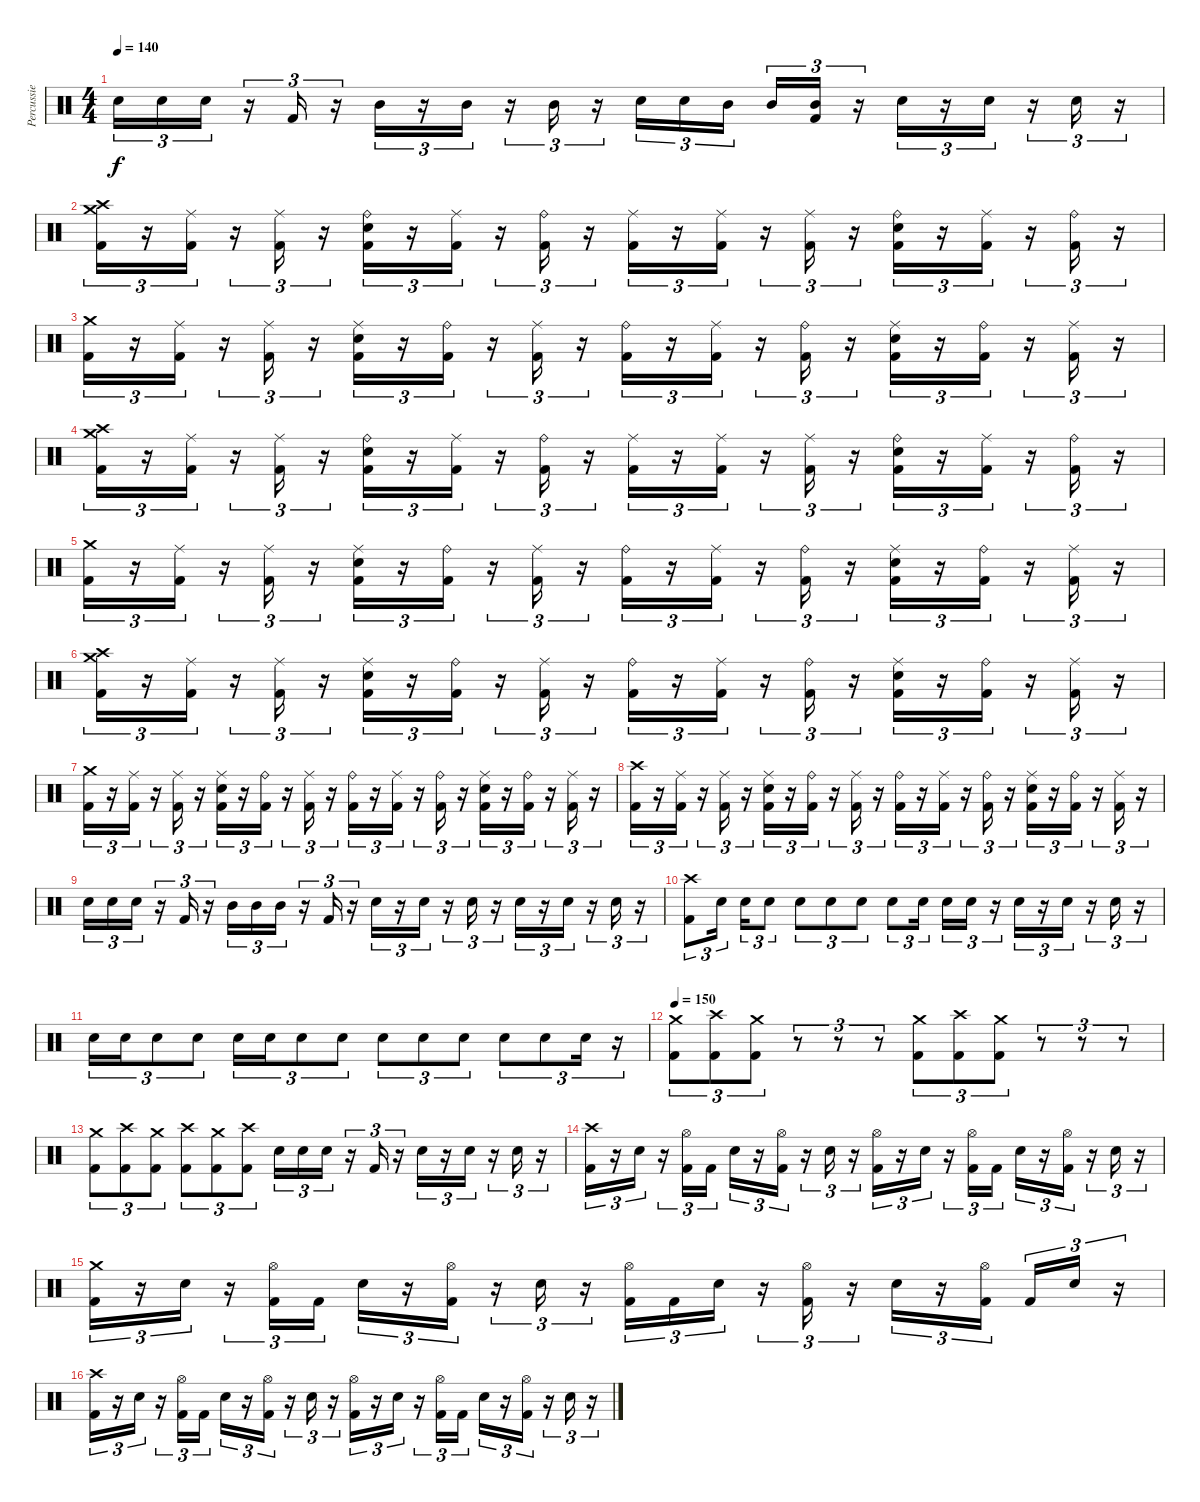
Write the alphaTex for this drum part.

\track ("Percussie" "Percussie") {instrument percussion}
\staff {score}
\articulation defaults
\ts (4 4)
\tempo 140
\clef neutral
\ks c "Electric Snare (hit)".16{tu (3 2) dy f} "Electric Snare (hit)".16{tu (3 2)} "Electric Snare (hit)".16{tu (3 2)}
r.16{tu (3 2)} "Kick (hit) 2".16{tu (3 2)} r.16{tu (3 2)} "Mid Tom (hit)".16{tu (3 2)} r.16{tu (3 2)} "Mid Tom (hit)".16{tu (3 2)} r.16{tu (3 2)} "Mid Tom (hit)".16{tu (3 2)} r.16{tu (3 2)} "Electric Snare (hit)".16{tu (3 2)} "Electric Snare (hit)".16{tu (3 2)} "Mid Tom (hit)".16{tu (3 2) beam splitsecondary} "Mid Tom (hit)".16{tu (3 2)} ("Mid Tom (hit)" "Kick (hit) 2").16{tu (3 2)} r.16{tu (3 2)} "Electric Snare (hit)".16{tu (3 2)} r.16{tu (3 2)} "Electric Snare (hit)".16{tu (3 2)} r.16{tu (3 2)} "Electric Snare (hit)".16{tu (3 2)} r.16{tu (3 2)} |
("Crash medium (hit)" "Crash high (hit)" "Kick (hit) 2").16{tu (3 2)} r.16{tu (3 2)} ("Ride (middle)" "Kick (hit) 2").16{tu (3 2)} r.16{tu (3 2)} ("Ride (middle)" "Kick (hit) 2").16{tu (3 2)} r.16{tu (3 2)} ("Ride (bell)" "Electric Snare (hit)" "Kick (hit) 2").16{tu (3 2)} r.16{tu (3 2)} ("Ride (middle)" "Kick (hit) 2").16{tu (3 2)} r.16{tu (3 2)} ("Ride (bell)" "Kick (hit) 2").16{tu (3 2)} r.16{tu (3 2)} ("Ride (middle)" "Kick (hit) 2").16{tu (3 2)} r.16{tu (3 2)} ("Ride (middle)" "Kick (hit) 2").16{tu (3 2)} r.16{tu (3 2)} ("Ride (middle)" "Kick (hit) 2").16{tu (3 2)} r.16{tu (3 2)} ("Ride (bell)" "Electric Snare (hit)" "Kick (hit) 2").16{tu (3 2)} r.16{tu (3 2)} ("Ride (middle)" "Kick (hit) 2").16{tu (3 2)} r.16{tu (3 2)} ("Ride (bell)" "Kick (hit) 2").16{tu (3 2)} r.16{tu (3 2)} |
("Crash medium (hit)" "Kick (hit) 2").16{tu (3 2)} r.16{tu (3 2)} ("Ride (middle)" "Kick (hit) 2").16{tu (3 2)} r.16{tu (3 2)} ("Ride (middle)" "Kick (hit) 2").16{tu (3 2)} r.16{tu (3 2)} ("Ride (middle)" "Electric Snare (hit)" "Kick (hit) 2").16{tu (3 2)} r.16{tu (3 2)} ("Ride (bell)" "Kick (hit) 2").16{tu (3 2)} r.16{tu (3 2)} ("Ride (middle)" "Kick (hit) 2").16{tu (3 2)} r.16{tu (3 2)} ("Ride (bell)" "Kick (hit) 2").16{tu (3 2)} r.16{tu (3 2)} ("Ride (middle)" "Kick (hit) 2").16{tu (3 2)} r.16{tu (3 2)} ("Ride (bell)" "Kick (hit) 2").16{tu (3 2)} r.16{tu (3 2)} ("Ride (middle)" "Electric Snare (hit)" "Kick (hit) 2").16{tu (3 2)} r.16{tu (3 2)} ("Ride (bell)" "Kick (hit) 2").16{tu (3 2)} r.16{tu (3 2)} ("Ride (middle)" "Kick (hit) 2").16{tu (3 2)} r.16{tu (3 2)} |
("Crash medium (hit)" "Crash high (hit)" "Kick (hit) 2").16{tu (3 2)} r.16{tu (3 2)} ("Ride (middle)" "Kick (hit) 2").16{tu (3 2)} r.16{tu (3 2)} ("Ride (middle)" "Kick (hit) 2").16{tu (3 2)} r.16{tu (3 2)} ("Ride (bell)" "Electric Snare (hit)" "Kick (hit) 2").16{tu (3 2)} r.16{tu (3 2)} ("Ride (middle)" "Kick (hit) 2").16{tu (3 2)} r.16{tu (3 2)} ("Ride (bell)" "Kick (hit) 2").16{tu (3 2)} r.16{tu (3 2)} ("Ride (middle)" "Kick (hit) 2").16{tu (3 2)} r.16{tu (3 2)} ("Ride (middle)" "Kick (hit) 2").16{tu (3 2)} r.16{tu (3 2)} ("Ride (middle)" "Kick (hit) 2").16{tu (3 2)} r.16{tu (3 2)} ("Ride (bell)" "Electric Snare (hit)" "Kick (hit) 2").16{tu (3 2)} r.16{tu (3 2)} ("Ride (middle)" "Kick (hit) 2").16{tu (3 2)} r.16{tu (3 2)} ("Ride (bell)" "Kick (hit) 2").16{tu (3 2)} r.16{tu (3 2)} |
("Crash medium (hit)" "Kick (hit) 2").16{tu (3 2)} r.16{tu (3 2)} ("Ride (middle)" "Kick (hit) 2").16{tu (3 2)} r.16{tu (3 2)} ("Ride (middle)" "Kick (hit) 2").16{tu (3 2)} r.16{tu (3 2)} ("Ride (middle)" "Electric Snare (hit)" "Kick (hit) 2").16{tu (3 2)} r.16{tu (3 2)} ("Ride (bell)" "Kick (hit) 2").16{tu (3 2)} r.16{tu (3 2)} ("Ride (middle)" "Kick (hit) 2").16{tu (3 2)} r.16{tu (3 2)} ("Ride (bell)" "Kick (hit) 2").16{tu (3 2)} r.16{tu (3 2)} ("Ride (middle)" "Kick (hit) 2").16{tu (3 2)} r.16{tu (3 2)} ("Ride (bell)" "Kick (hit) 2").16{tu (3 2)} r.16{tu (3 2)} ("Ride (middle)" "Electric Snare (hit)" "Kick (hit) 2").16{tu (3 2)} r.16{tu (3 2)} ("Ride (bell)" "Kick (hit) 2").16{tu (3 2)} r.16{tu (3 2)} ("Ride (middle)" "Kick (hit) 2").16{tu (3 2)} r.16{tu (3 2)} |
("Crash medium (hit)" "Crash high (hit)" "Kick (hit) 2").16{tu (3 2)} r.16{tu (3 2)} ("Ride (middle)" "Kick (hit) 2").16{tu (3 2)} r.16{tu (3 2)} ("Ride (middle)" "Kick (hit) 2").16{tu (3 2)} r.16{tu (3 2)} ("Ride (middle)" "Electric Snare (hit)" "Kick (hit) 2").16{tu (3 2)} r.16{tu (3 2)} ("Ride (bell)" "Kick (hit) 2").16{tu (3 2)} r.16{tu (3 2)} ("Ride (middle)" "Kick (hit) 2").16{tu (3 2)} r.16{tu (3 2)} ("Ride (bell)" "Kick (hit) 2").16{tu (3 2)} r.16{tu (3 2)} ("Ride (middle)" "Kick (hit) 2").16{tu (3 2)} r.16{tu (3 2)} ("Ride (bell)" "Kick (hit) 2").16{tu (3 2)} r.16{tu (3 2)} ("Ride (middle)" "Electric Snare (hit)" "Kick (hit) 2").16{tu (3 2)} r.16{tu (3 2)} ("Ride (bell)" "Kick (hit) 2").16{tu (3 2)} r.16{tu (3 2)} ("Ride (middle)" "Kick (hit) 2").16{tu (3 2)} r.16{tu (3 2)} |
("Crash medium (hit)" "Kick (hit) 2").16{tu (3 2)} r.16{tu (3 2)} ("Ride (middle)" "Kick (hit) 2").16{tu (3 2)} r.16{tu (3 2)} ("Ride (middle)" "Kick (hit) 2").16{tu (3 2)} r.16{tu (3 2)} ("Ride (middle)" "Electric Snare (hit)" "Kick (hit) 2").16{tu (3 2)} r.16{tu (3 2)} ("Ride (bell)" "Kick (hit) 2").16{tu (3 2)} r.16{tu (3 2)} ("Ride (middle)" "Kick (hit) 2").16{tu (3 2)} r.16{tu (3 2)} ("Ride (bell)" "Kick (hit) 2").16{tu (3 2)} r.16{tu (3 2)} ("Ride (middle)" "Kick (hit) 2").16{tu (3 2)} r.16{tu (3 2)} ("Ride (bell)" "Kick (hit) 2").16{tu (3 2)} r.16{tu (3 2)} ("Ride (middle)" "Electric Snare (hit)" "Kick (hit) 2").16{tu (3 2)} r.16{tu (3 2)} ("Ride (bell)" "Kick (hit) 2").16{tu (3 2)} r.16{tu (3 2)} ("Ride (middle)" "Kick (hit) 2").16{tu (3 2)} r.16{tu (3 2)} |
("Crash high (hit)" "Kick (hit) 2").16{tu (3 2)} r.16{tu (3 2)} ("Ride (middle)" "Kick (hit) 2").16{tu (3 2)} r.16{tu (3 2)} ("Ride (middle)" "Kick (hit) 2").16{tu (3 2)} r.16{tu (3 2)} ("Ride (middle)" "Electric Snare (hit)" "Kick (hit) 2").16{tu (3 2)} r.16{tu (3 2)} ("Ride (bell)" "Kick (hit) 2").16{tu (3 2)} r.16{tu (3 2)} ("Ride (middle)" "Kick (hit) 2").16{tu (3 2)} r.16{tu (3 2)} ("Ride (bell)" "Kick (hit) 2").16{tu (3 2)} r.16{tu (3 2)} ("Ride (middle)" "Kick (hit) 2").16{tu (3 2)} r.16{tu (3 2)} ("Ride (bell)" "Kick (hit) 2").16{tu (3 2)} r.16{tu (3 2)} ("Ride (middle)" "Electric Snare (hit)" "Kick (hit) 2").16{tu (3 2)} r.16{tu (3 2)} ("Ride (bell)" "Kick (hit) 2").16{tu (3 2)} r.16{tu (3 2)} ("Ride (middle)" "Kick (hit) 2").16{tu (3 2)} r.16{tu (3 2)} |
"Electric Snare (hit)".16{tu (3 2)} "Electric Snare (hit)".16{tu (3 2)} "Electric Snare (hit)".16{tu (3 2)} r.16{tu (3 2)} "Kick (hit) 2".16{tu (3 2)} r.16{tu (3 2)} "Mid Tom (hit)".16{tu (3 2)} "Mid Tom (hit)".16{tu (3 2)} "Mid Tom (hit)".16{tu (3 2)} r.16{tu (3 2)} "Kick (hit) 2".16{tu (3 2)} r.16{tu (3 2)} "Electric Snare (hit)".16{tu (3 2)} r.16{tu (3 2)} "Electric Snare (hit)".16{tu (3 2)} r.16{tu (3 2)} "Electric Snare (hit)".16{tu (3 2)} r.16{tu (3 2)} "Electric Snare (hit)".16{tu (3 2)} r.16{tu (3 2)} "Electric Snare (hit)".16{tu (3 2)} r.16{tu (3 2)} "Electric Snare (hit)".16{tu (3 2)} r.16{tu (3 2)} |
("Crash high (hit)" "Kick (hit) 2").8{tu (3 2)} "Electric Snare (hit)".16{tu (3 2) beam splitsecondary} "Electric Snare (hit)".16{tu (3 2)} "Electric Snare (hit)".8{tu (3 2)} "Electric Snare (hit)".8{tu (3 2)} "Electric Snare (hit)".8{tu (3 2)} "Electric Snare (hit)".8{tu (3 2)} "Electric Snare (hit)".8{tu (3 2)} "Electric Snare (hit)".16{tu (3 2) beam splitsecondary} "Electric Snare (hit)".16{tu (3 2)} "Electric Snare (hit)".16{tu (3 2)} r.16{tu (3 2)} "Electric Snare (hit)".16{tu (3 2)} r.16{tu (3 2)} "Electric Snare (hit)".16{tu (3 2)} r.16{tu (3 2)} "Electric Snare (hit)".16{tu (3 2)} r.16{tu (3 2)} |
"Electric Snare (hit)".16{tu (3 2)} "Electric Snare (hit)".16{tu (3 2)} "Electric Snare (hit)".8{tu (3 2)} "Electric Snare (hit)".8{tu (3 2)} "Electric Snare (hit)".16{tu (3 2)} "Electric Snare (hit)".16{tu (3 2)} "Electric Snare (hit)".8{tu (3 2)} "Electric Snare (hit)".8{tu (3 2)} "Electric Snare (hit)".8{tu (3 2)} "Electric Snare (hit)".8{tu (3 2)} "Electric Snare (hit)".8{tu (3 2)} "Electric Snare (hit)".8{tu (3 2)} "Electric Snare (hit)".8{tu (3 2)} "Electric Snare (hit)".16{tu (3 2)} r.16{tu (3 2)} |
\tempo 150
("Crash medium (hit)" "Kick (hit) 2").8{tu (3 2)} ("Crash high (hit)" "Kick (hit) 2").8{tu (3 2)} ("Crash medium (hit)" "Kick (hit) 2").8{tu (3 2)} r.8{tu (3 2)} r.8{tu (3 2)} r.8{tu (3 2)} ("Crash medium (hit)" "Kick (hit) 2").8{tu (3 2)} ("Crash high (hit)" "Kick (hit) 2").8{tu (3 2)} ("Crash medium (hit)" "Kick (hit) 2").8{tu (3 2)} r.8{tu (3 2)} r.8{tu (3 2)} r.8{tu (3 2)} |
("Crash medium (hit)" "Kick (hit) 2").8{tu (3 2)} ("Crash high (hit)" "Kick (hit) 2").8{tu (3 2)} ("Crash medium (hit)" "Kick (hit) 2").8{tu (3 2)} ("Crash high (hit)" "Kick (hit) 2").8{tu (3 2)} ("Crash medium (hit)" "Kick (hit) 2").8{tu (3 2)} ("Crash high (hit)" "Kick (hit) 2").8{tu (3 2)} "Electric Snare (hit)".16{tu (3 2)} "Electric Snare (hit)".16{tu (3 2)} "Electric Snare (hit)".16{tu (3 2)} r.16{tu (3 2)} "Kick (hit) 2".16{tu (3 2)} r.16{tu (3 2)} "Electric Snare (hit)".16{tu (3 2)} r.16{tu (3 2)} "Electric Snare (hit)".16{tu (3 2)} r.16{tu (3 2)} "Electric Snare (hit)".16{tu (3 2)} r.16{tu (3 2)} |
("Crash high (hit)" "Kick (hit) 2").16{tu (3 2)} r.16{tu (3 2)} "Electric Snare (hit)".16{tu (3 2)} r.16{tu (3 2)} ("Hi-Hat (open)" "Kick (hit) 2").16{tu (3 2)} "Kick (hit) 2".16{tu (3 2)} "Electric Snare (hit)".16{tu (3 2)} r.16{tu (3 2)} ("Hi-Hat (open)" "Kick (hit) 2").16{tu (3 2)} r.16{tu (3 2)} "Electric Snare (hit)".16{tu (3 2)} r.16{tu (3 2)} ("Hi-Hat (open)" "Kick (hit) 2").16{tu (3 2)} r.16{tu (3 2)} "Electric Snare (hit)".16{tu (3 2)} r.16{tu (3 2)} ("Hi-Hat (open)" "Kick (hit) 2").16{tu (3 2)} "Kick (hit) 2".16{tu (3 2)} "Electric Snare (hit)".16{tu (3 2)} r.16{tu (3 2)} ("Hi-Hat (open)" "Kick (hit) 2").16{tu (3 2)} r.16{tu (3 2)} "Electric Snare (hit)".16{tu (3 2)} r.16{tu (3 2)} |
("Crash medium (hit)" "Kick (hit) 2").16{tu (3 2)} r.16{tu (3 2)} "Electric Snare (hit)".16{tu (3 2)} r.16{tu (3 2)} ("Hi-Hat (open)" "Kick (hit) 2").16{tu (3 2)} "Kick (hit) 2".16{tu (3 2)} "Electric Snare (hit)".16{tu (3 2)} r.16{tu (3 2)} ("Hi-Hat (open)" "Kick (hit) 2").16{tu (3 2)} r.16{tu (3 2)} "Electric Snare (hit)".16{tu (3 2)} r.16{tu (3 2)} ("Hi-Hat (open)" "Kick (hit) 2").16{tu (3 2)} "Kick (hit) 2".16{tu (3 2)} "Electric Snare (hit)".16{tu (3 2)} r.16{tu (3 2)} ("Hi-Hat (open)" "Kick (hit) 2").16{tu (3 2)} r.16{tu (3 2)} "Electric Snare (hit)".16{tu (3 2)} r.16{tu (3 2)} ("Hi-Hat (open)" "Kick (hit) 2").16{tu (3 2) beam splitsecondary} "Kick (hit) 2".16{tu (3 2)} "Electric Snare (hit)".16{tu (3 2)} r.16{tu (3 2)} |
("Crash high (hit)" "Kick (hit) 2").16{tu (3 2)} r.16{tu (3 2)} "Electric Snare (hit)".16{tu (3 2)} r.16{tu (3 2)} ("Hi-Hat (open)" "Kick (hit) 2").16{tu (3 2)} "Kick (hit) 2".16{tu (3 2)} "Electric Snare (hit)".16{tu (3 2)} r.16{tu (3 2)} ("Hi-Hat (open)" "Kick (hit) 2").16{tu (3 2)} r.16{tu (3 2)} "Electric Snare (hit)".16{tu (3 2)} r.16{tu (3 2)} ("Hi-Hat (open)" "Kick (hit) 2").16{tu (3 2)} r.16{tu (3 2)} "Electric Snare (hit)".16{tu (3 2)} r.16{tu (3 2)} ("Hi-Hat (open)" "Kick (hit) 2").16{tu (3 2)} "Kick (hit) 2".16{tu (3 2)} "Electric Snare (hit)".16{tu (3 2)} r.16{tu (3 2)} ("Hi-Hat (open)" "Kick (hit) 2").16{tu (3 2)} r.16{tu (3 2)} "Electric Snare (hit)".16{tu (3 2)} r.16{tu (3 2)}
